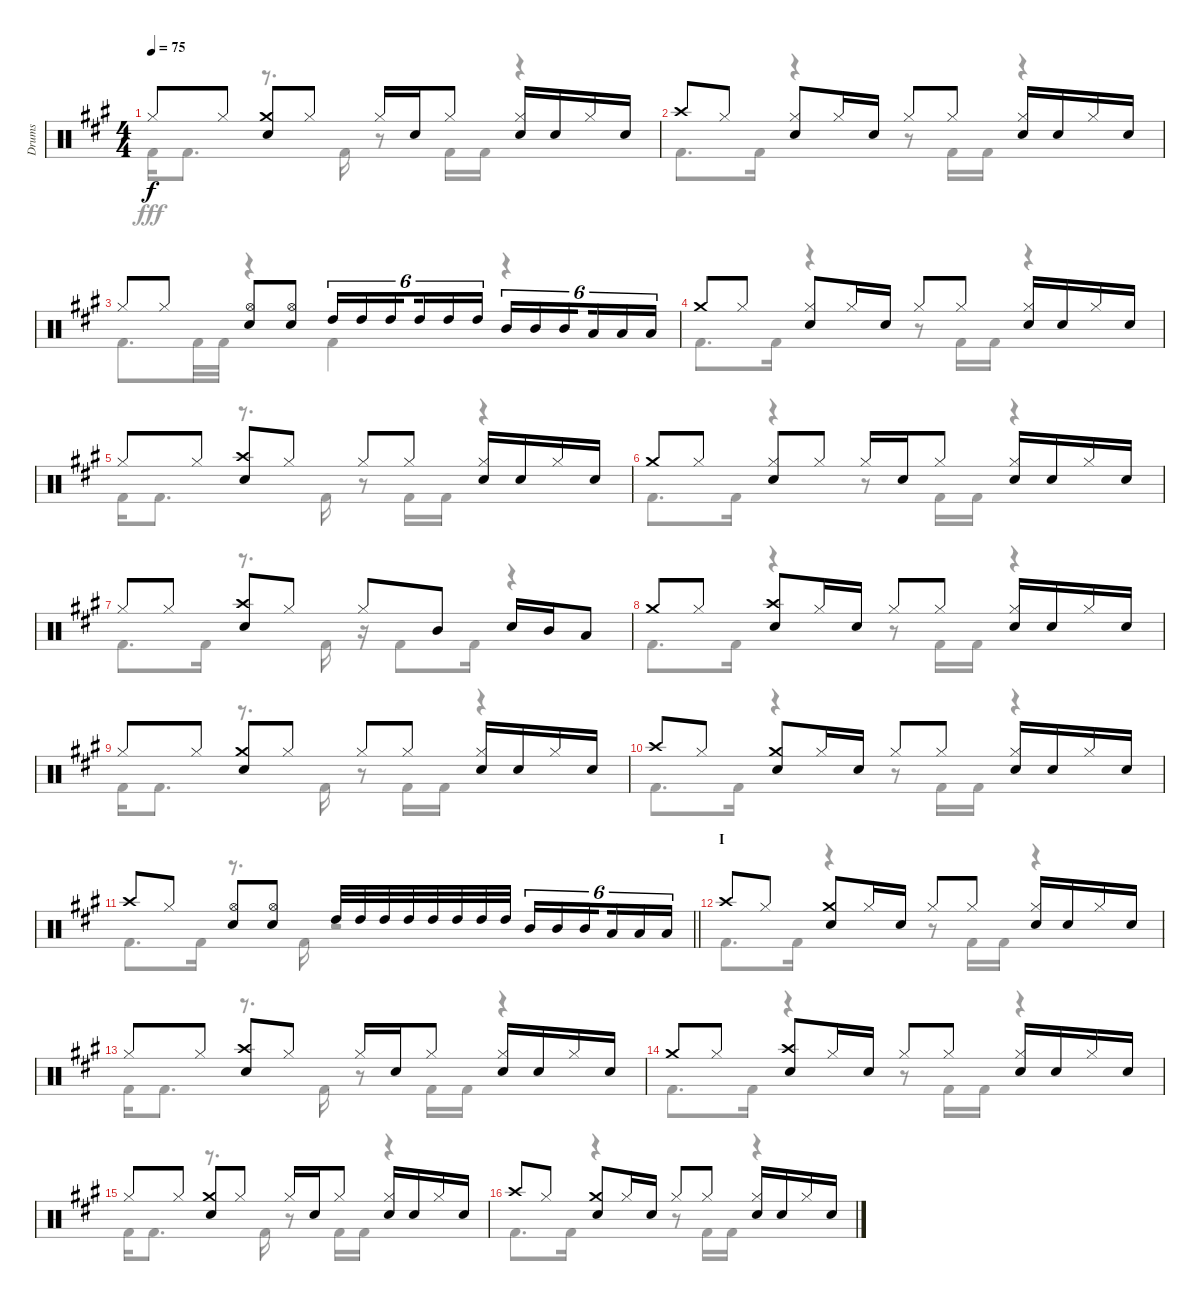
\track ("Drums" "Drums") {instrument percussion}
\staff {score}
\articulation defaults
\voice
\ts (4 4)
\tempo 75
\clef neutral
\ks a "Hi-Hat (closed)".8{dy f} "Hi-Hat (closed)".8
("Crash medium (hit)" "Snare (hit) 2").8 "Hi-Hat (closed)".8 "Hi-Hat (closed)".16 "Snare (hit) 2".16 "Hi-Hat (closed)".8 ("Hi-Hat (closed)" "Snare (hit) 2").16 "Snare (hit) 2".16 "Hi-Hat (closed)".16 "Snare (hit) 2".16 |
"Crash high (hit)".8 "Hi-Hat (closed)".8 ("Hi-Hat (closed)" "Snare (hit) 2").8 "Hi-Hat (closed)".16 "Snare (hit) 2".16 "Hi-Hat (closed)".8 "Hi-Hat (closed)".8 ("Hi-Hat (closed)" "Snare (hit) 2").16 "Snare (hit) 2".16 "Hi-Hat (closed)".16 "Snare (hit) 2".16 |
"Hi-Hat (closed)".8 "Hi-Hat (closed)".8 ("Hi-Hat (open)" "Snare (hit) 2").8 ("Hi-Hat (open)" "Snare (hit) 2").8 "High Tom (hit)".16{tu (6 4)} "High Tom (hit)".16{tu (6 4)} "High Tom (hit)".16{tu (6 4) beam splitsecondary} "High Tom (hit)".16{tu (6 4)} "High Tom (hit)".16{tu (6 4)} "High Tom (hit)".16{tu (6 4)} "Mid Tom (hit)".16{tu (6 4)} "Mid Tom (hit)".16{tu (6 4)} "Mid Tom (hit)".16{tu (6 4) beam splitsecondary} "Low Tom (hit)".16{tu (6 4)} "Low Tom (hit)".16{tu (6 4)} "Low Tom (hit)".16{tu (6 4)} |
"Crash medium (hit)".8 "Hi-Hat (closed)".8 ("Hi-Hat (closed)" "Snare (hit) 2").8 "Hi-Hat (closed)".16 "Snare (hit) 2".16 "Hi-Hat (closed)".8 "Hi-Hat (closed)".8 ("Hi-Hat (closed)" "Snare (hit) 2").16 "Snare (hit) 2".16 "Hi-Hat (closed)".16 "Snare (hit) 2".16 |
"Hi-Hat (closed)".8 "Hi-Hat (closed)".8 ("Crash high (hit)" "Snare (hit) 2").8 "Hi-Hat (closed)".8 "Hi-Hat (closed)".8 "Hi-Hat (closed)".8 ("Hi-Hat (closed)" "Snare (hit) 2").16 "Snare (hit) 2".16 "Hi-Hat (closed)".16 "Snare (hit) 2".16 |
"Crash medium (hit)".8 "Hi-Hat (closed)".8 ("Hi-Hat (closed)" "Snare (hit) 2").8 "Hi-Hat (closed)".8 "Hi-Hat (closed)".16 "Snare (hit) 2".16 "Hi-Hat (closed)".8 ("Hi-Hat (closed)" "Snare (hit) 2").16 "Snare (hit) 2".16 "Hi-Hat (closed)".16 "Snare (hit) 2".16 |
"Hi-Hat (closed)".8 "Hi-Hat (closed)".8 ("Crash high (hit)" "Snare (hit) 2").8 "Hi-Hat (closed)".8 "Hi-Hat (closed)".8 "Mid Tom (hit)".8 "Snare (hit) 2".16 "Mid Tom (hit)".16 "Low Tom (hit)".8 |
"Crash medium (hit)".8 "Hi-Hat (closed)".8 ("Crash high (hit)" "Snare (hit) 2").8 "Hi-Hat (closed)".16 "Snare (hit) 2".16 "Hi-Hat (closed)".8 "Hi-Hat (closed)".8 ("Hi-Hat (closed)" "Snare (hit) 2").16 "Snare (hit) 2".16 "Hi-Hat (closed)".16 "Snare (hit) 2".16 |
"Hi-Hat (closed)".8 "Hi-Hat (closed)".8 ("Crash medium (hit)" "Snare (hit) 2").8 "Hi-Hat (closed)".8 "Hi-Hat (closed)".8 "Hi-Hat (closed)".8 ("Hi-Hat (closed)" "Snare (hit) 2").16 "Snare (hit) 2".16 "Hi-Hat (closed)".16 "Snare (hit) 2".16 |
"Crash high (hit)".8 "Hi-Hat (closed)".8 ("Crash medium (hit)" "Snare (hit) 2").8 "Hi-Hat (closed)".16 "Snare (hit) 2".16 "Hi-Hat (closed)".8 "Hi-Hat (closed)".8 ("Hi-Hat (closed)" "Snare (hit) 2").16 "Snare (hit) 2".16 "Hi-Hat (closed)".16 "Snare (hit) 2".16 |
\barLineRight lightlight "Crash high (hit)".8 "Hi-Hat (closed)".8
("Hi-Hat (open)" "Snare (hit) 2").8 ("Hi-Hat (open)" "Snare (hit) 2").8 "High Tom (hit)".32 "High Tom (hit)".32 "High Tom (hit)".32 "High Tom (hit)".32 "High Tom (hit)".32 "High Tom (hit)".32 "High Tom (hit)".32 "High Tom (hit)".32 "Mid Tom (hit)".16{tu (6 4)} "Mid Tom (hit)".16{tu (6 4)} "Mid Tom (hit)".16{tu (6 4) beam splitsecondary} "Low Tom (hit)".16{tu (6 4)} "Low Tom (hit)".16{tu (6 4)} "Low Tom (hit)".16{tu (6 4)} |
\section ("" "I")
"Crash high (hit)".8 "Hi-Hat (closed)".8 ("Crash medium (hit)" "Snare (hit) 2").8 "Hi-Hat (closed)".16 "Snare (hit) 2".16 "Hi-Hat (closed)".8 "Hi-Hat (closed)".8 ("Hi-Hat (closed)" "Snare (hit) 2").16 "Snare (hit) 2".16 "Hi-Hat (closed)".16 "Snare (hit) 2".16 |
"Hi-Hat (closed)".8 "Hi-Hat (closed)".8 ("Crash high (hit)" "Snare (hit) 2").8 "Hi-Hat (closed)".8 "Hi-Hat (closed)".16 "Snare (hit) 2".16 "Hi-Hat (closed)".8 ("Hi-Hat (closed)" "Snare (hit) 2").16 "Snare (hit) 2".16 "Hi-Hat (closed)".16 "Snare (hit) 2".16 |
"Crash medium (hit)".8 "Hi-Hat (closed)".8 ("Crash high (hit)" "Snare (hit) 2").8 "Hi-Hat (closed)".16 "Snare (hit) 2".16 "Hi-Hat (closed)".8 "Hi-Hat (closed)".8 ("Hi-Hat (closed)" "Snare (hit) 2").16 "Snare (hit) 2".16 "Hi-Hat (closed)".16 "Snare (hit) 2".16 |
"Hi-Hat (closed)".8 "Hi-Hat (closed)".8 ("Crash medium (hit)" "Snare (hit) 2").8 "Hi-Hat (closed)".8 "Hi-Hat (closed)".16 "Snare (hit) 2".16 "Hi-Hat (closed)".8 ("Hi-Hat (closed)" "Snare (hit) 2").16 "Snare (hit) 2".16 "Hi-Hat (closed)".16 "Snare (hit) 2".16 |
"Crash high (hit)".8 "Hi-Hat (closed)".8 ("Crash medium (hit)" "Snare (hit) 2").8 "Hi-Hat (closed)".16 "Snare (hit) 2".16 "Hi-Hat (closed)".8 "Hi-Hat (closed)".8 ("Hi-Hat (closed)" "Snare (hit) 2").16 "Snare (hit) 2".16 "Hi-Hat (closed)".16 "Snare (hit) 2".16
\voice
\clef neutral
\ottava regular
\simile none
\ks a "Kick (hit) 2".16{dy fff} "Kick (hit) 2".8{d}
r.8{d} "Kick (hit) 2".16 r.8 "Kick (hit) 2".16 "Kick (hit) 2".16 r.4 |
"Kick (hit) 2".8{d} "Kick (hit) 2".16 r.4 r.8 "Kick (hit) 2".16 "Kick (hit) 2".16 r.4 |
"Kick (hit) 2".8{d} "Kick (hit) 2".32 "Kick (hit) 2".32 r.4 "Kick (hit) 2".4 r.4 |
"Kick (hit) 2".8{d} "Kick (hit) 2".16 r.4 r.8 "Kick (hit) 2".16 "Kick (hit) 2".16 r.4 |
"Kick (hit) 2".16 "Kick (hit) 2".8{d} r.8{d} "Kick (hit) 2".16 r.8 "Kick (hit) 2".16 "Kick (hit) 2".16 r.4 |
"Kick (hit) 2".8{d} "Kick (hit) 2".16 r.4 r.8 "Kick (hit) 2".16 "Kick (hit) 2".16 r.4 |
"Kick (hit) 2".8{d} "Kick (hit) 2".16 r.8{d} "Kick (hit) 2".16 r.16 "Kick (hit) 2".8 "Kick (hit) 2".16 r.4 |
"Kick (hit) 2".8{d} "Kick (hit) 2".16 r.4 r.8 "Kick (hit) 2".16 "Kick (hit) 2".16 r.4 |
"Kick (hit) 2".16 "Kick (hit) 2".8{d} r.8{d} "Kick (hit) 2".16 r.8 "Kick (hit) 2".16 "Kick (hit) 2".16 r.4 |
"Kick (hit) 2".8{d} "Kick (hit) 2".16 r.4 r.8 "Kick (hit) 2".16 "Kick (hit) 2".16 r.4 |
\barLineRight lightlight "Kick (hit) 2".8{d} "Kick (hit) 2".16
r.8{d} "Kick (hit) 2".16 r.2 |
"Kick (hit) 2".8{d} "Kick (hit) 2".16 r.4 r.8 "Kick (hit) 2".16 "Kick (hit) 2".16 r.4 |
"Kick (hit) 2".16 "Kick (hit) 2".8{d} r.8{d} "Kick (hit) 2".16 r.8 "Kick (hit) 2".16 "Kick (hit) 2".16 r.4 |
"Kick (hit) 2".8{d} "Kick (hit) 2".16 r.4 r.8 "Kick (hit) 2".16 "Kick (hit) 2".16 r.4 |
"Kick (hit) 2".16 "Kick (hit) 2".8{d} r.8{d} "Kick (hit) 2".16 r.8 "Kick (hit) 2".16 "Kick (hit) 2".16 r.4 |
"Kick (hit) 2".8{d} "Kick (hit) 2".16 r.4 r.8 "Kick (hit) 2".16 "Kick (hit) 2".16 r.4
